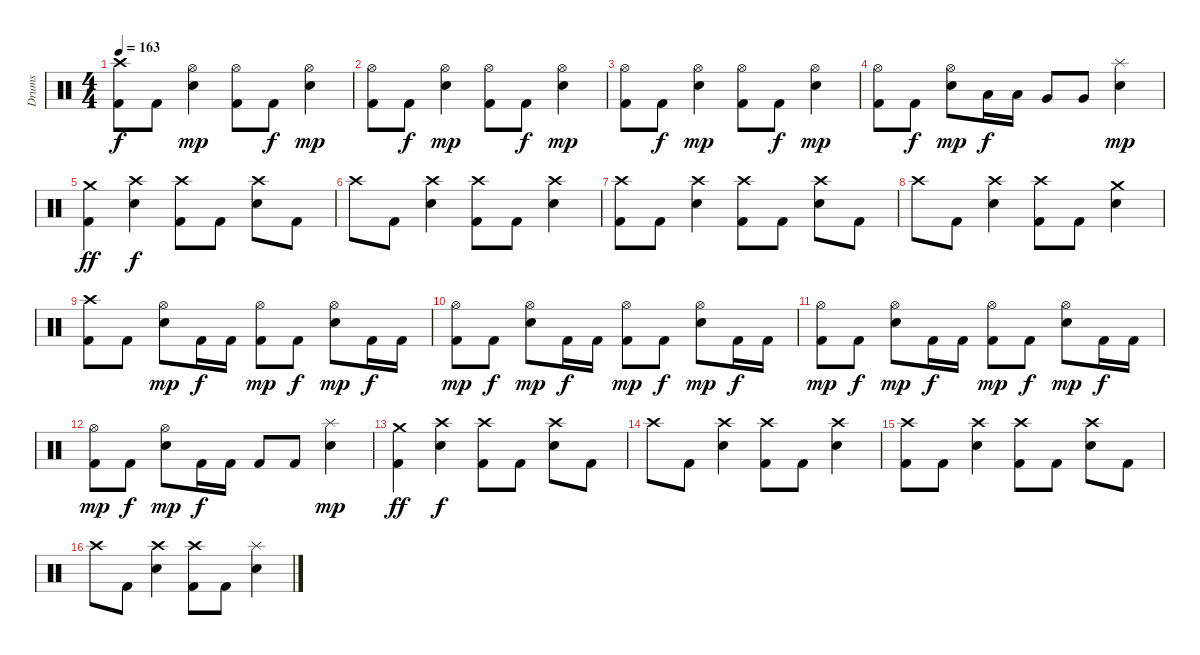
\track ("Drums" "Drums") {instrument percussion}
\staff {score}
\articulation defaults
\ts (4 4)
\tempo 163
\clef neutral
\ks c
("Crash high (hit)" "Kick (hit) 2").8{dy f} "Kick (hit) 2".8 ("Hi-Hat (open)" "Snare (hit) 2").4{dy mp} ("Hi-Hat (open)" "Kick (hit) 2").8 "Kick (hit) 2".8{dy f} ("Hi-Hat (open)" "Snare (hit) 2").4{dy mp} |
("Hi-Hat (open)" "Kick (hit) 2").8 "Kick (hit) 2".8{dy f} ("Hi-Hat (open)" "Snare (hit) 2").4{dy mp} ("Hi-Hat (open)" "Kick (hit) 2").8 "Kick (hit) 2".8{dy f} ("Hi-Hat (open)" "Snare (hit) 2").4{dy mp} |
("Hi-Hat (open)" "Kick (hit) 2").8 "Kick (hit) 2".8{dy f} ("Hi-Hat (open)" "Snare (hit) 2").4{dy mp} ("Hi-Hat (open)" "Kick (hit) 2").8 "Kick (hit) 2".8{dy f} ("Hi-Hat (open)" "Snare (hit) 2").4{dy mp} |
("Hi-Hat (open)" "Kick (hit) 2").8 "Kick (hit) 2".8{dy f} ("Hi-Hat (open)" "Snare (hit) 2").8{dy mp} "Low Tom (hit)".16{dy f} "Low Tom (hit)".16 "Very Low Tom (hit)".8 "Very Low Tom (hit)".8 ("Splash (hit)" "Snare (hit) 2").4{dy mp} |
("Crash medium (hit)" "Kick (hit) 2").4{dy ff} ("Crash high (hit)" "Snare (hit) 2").4{dy f} ("Crash high (hit)" "Kick (hit) 2").8 "Kick (hit) 2".8 ("Crash high (hit)" "Snare (hit) 2").8 "Kick (hit) 2".8 |
"Crash high (hit)".8 "Kick (hit) 2".8 ("Crash high (hit)" "Snare (hit) 2").4 ("Crash high (hit)" "Kick (hit) 2").8 "Kick (hit) 2".8 ("Crash high (hit)" "Snare (hit) 2").4 |
("Crash high (hit)" "Kick (hit) 2").8 "Kick (hit) 2".8 ("Crash high (hit)" "Snare (hit) 2").4 ("Crash high (hit)" "Kick (hit) 2").8 "Kick (hit) 2".8 ("Crash high (hit)" "Snare (hit) 2").8 "Kick (hit) 2".8 |
"Crash high (hit)".8 "Kick (hit) 2".8 ("Crash high (hit)" "Snare (hit) 2").4 ("Crash high (hit)" "Kick (hit) 2").8 "Kick (hit) 2".8 ("Crash medium (hit)" "Snare (hit) 2").4 |
("Crash high (hit)" "Kick (hit) 2").8 "Kick (hit) 2".8 ("Hi-Hat (open)" "Snare (hit) 2").8{dy mp} "Kick (hit) 2".16{dy f} "Kick (hit) 2".16 ("Hi-Hat (open)" "Kick (hit) 2").8{dy mp} "Kick (hit) 2".8{dy f} ("Hi-Hat (open)" "Snare (hit) 2").8{dy mp} "Kick (hit) 2".16{dy f} "Kick (hit) 2".16 |
("Hi-Hat (open)" "Kick (hit) 2").8{dy mp} "Kick (hit) 2".8{dy f} ("Hi-Hat (open)" "Snare (hit) 2").8{dy mp} "Kick (hit) 2".16{dy f} "Kick (hit) 2".16 ("Hi-Hat (open)" "Kick (hit) 2").8{dy mp} "Kick (hit) 2".8{dy f} ("Hi-Hat (open)" "Snare (hit) 2").8{dy mp} "Kick (hit) 2".16{dy f} "Kick (hit) 2".16 |
("Hi-Hat (open)" "Kick (hit) 2").8{dy mp} "Kick (hit) 2".8{dy f} ("Hi-Hat (open)" "Snare (hit) 2").8{dy mp} "Kick (hit) 2".16{dy f} "Kick (hit) 2".16 ("Hi-Hat (open)" "Kick (hit) 2").8{dy mp} "Kick (hit) 2".8{dy f} ("Hi-Hat (open)" "Snare (hit) 2").8{dy mp} "Kick (hit) 2".16{dy f} "Kick (hit) 2".16 |
("Hi-Hat (open)" "Kick (hit) 2").8{dy mp} "Kick (hit) 2".8{dy f} ("Hi-Hat (open)" "Snare (hit) 2").8{dy mp} "Kick (hit) 2".16{dy f} "Kick (hit) 2".16 "Kick (hit) 2".8 "Kick (hit) 2".8 ("Splash (hit)" "Snare (hit) 2").4{dy mp} |
("Crash medium (hit)" "Kick (hit) 2").4{dy ff} ("Crash high (hit)" "Snare (hit) 2").4{dy f} ("Crash high (hit)" "Kick (hit) 2").8 "Kick (hit) 2".8 ("Crash high (hit)" "Snare (hit) 2").8 "Kick (hit) 2".8 |
"Crash high (hit)".8 "Kick (hit) 2".8 ("Crash high (hit)" "Snare (hit) 2").4 ("Crash high (hit)" "Kick (hit) 2").8 "Kick (hit) 2".8 ("Crash high (hit)" "Snare (hit) 2").4 |
("Crash high (hit)" "Kick (hit) 2").8 "Kick (hit) 2".8 ("Crash high (hit)" "Snare (hit) 2").4 ("Crash high (hit)" "Kick (hit) 2").8 "Kick (hit) 2".8 ("Crash high (hit)" "Snare (hit) 2").8 "Kick (hit) 2".8 |
"Crash high (hit)".8 "Kick (hit) 2".8 ("Crash high (hit)" "Snare (hit) 2").4 ("Crash high (hit)" "Kick (hit) 2").8 "Kick (hit) 2".8 ("Splash (hit)" "Snare (hit) 2").4
